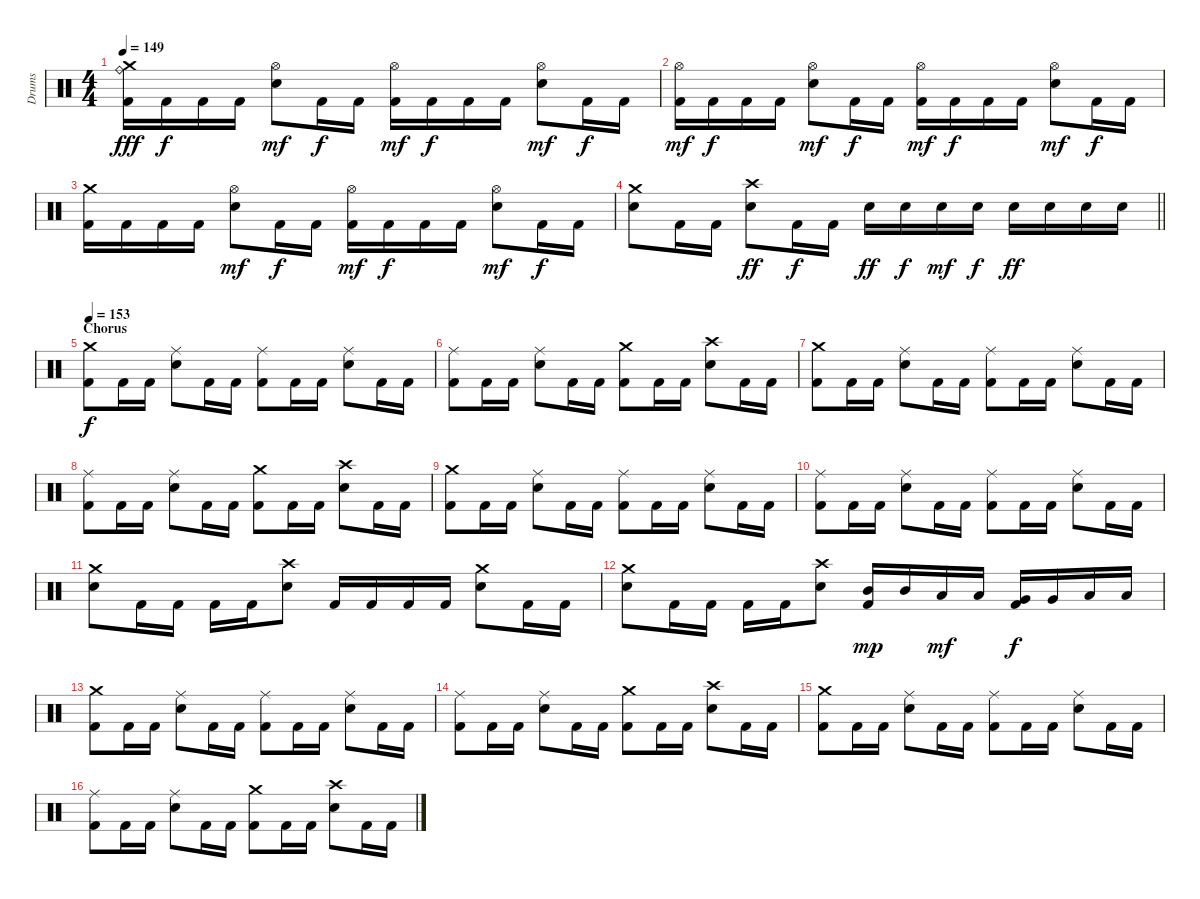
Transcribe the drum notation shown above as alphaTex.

\track ("Drums" "Drums") {instrument percussion}
\staff
\articulation defaults
\ts (4 4)
\tempo 149
\clef neutral
\ks c
("Kick (hit) 2" "Ride (bell)" "Crash medium (hit)").16{dy fff} "Kick (hit) 2".16{dy f} "Kick (hit) 2".16 "Kick (hit) 2".16 ("Electric Snare (hit)" "Hi-Hat (open)").8{dy mf} "Kick (hit) 2".16{dy f} "Kick (hit) 2".16 ("Kick (hit) 2" "Hi-Hat (open)").16{dy mf} "Kick (hit) 2".16{dy f} "Kick (hit) 2".16 "Kick (hit) 2".16 ("Electric Snare (hit)" "Hi-Hat (open)").8{dy mf} "Kick (hit) 2".16{dy f} "Kick (hit) 2".16 |
("Kick (hit) 2" "Hi-Hat (open)").16{dy mf} "Kick (hit) 2".16{dy f} "Kick (hit) 2".16 "Kick (hit) 2".16 ("Electric Snare (hit)" "Hi-Hat (open)").8{dy mf} "Kick (hit) 2".16{dy f} "Kick (hit) 2".16 ("Kick (hit) 2" "Hi-Hat (open)").16{dy mf} "Kick (hit) 2".16{dy f} "Kick (hit) 2".16 "Kick (hit) 2".16 ("Electric Snare (hit)" "Hi-Hat (open)").8{dy mf} "Kick (hit) 2".16{dy f} "Kick (hit) 2".16 |
("Kick (hit) 2" "Crash medium (hit)").16 "Kick (hit) 2".16 "Kick (hit) 2".16 "Kick (hit) 2".16 ("Electric Snare (hit)" "Hi-Hat (open)").8{dy mf} "Kick (hit) 2".16{dy f} "Kick (hit) 2".16 ("Kick (hit) 2" "Hi-Hat (open)").16{dy mf} "Kick (hit) 2".16{dy f} "Kick (hit) 2".16 "Kick (hit) 2".16 ("Electric Snare (hit)" "Hi-Hat (open)").8{dy mf} "Kick (hit) 2".16{dy f} "Kick (hit) 2".16 |
\barLineRight lightlight
("Electric Snare (hit)" "Crash medium (hit)").8 "Kick (hit) 2".16 "Kick (hit) 2".16 ("Electric Snare (hit)" "Crash high (hit)").8{dy ff} "Kick (hit) 2".16{dy f} "Kick (hit) 2".16 "Electric Snare (hit)".16{dy ff} "Electric Snare (hit)".16{dy f} "Electric Snare (hit)".16{dy mf} "Electric Snare (hit)".16{dy f} "Electric Snare (hit)".16{dy ff} "Electric Snare (hit)".16 "Electric Snare (hit)".16 "Electric Snare (hit)".16 |
\section ("" "Chorus")
\tempo 153
("Kick (hit) 2" "Crash medium (hit)").8{dy f} "Kick (hit) 2".16 "Kick (hit) 2".16 ("Electric Snare (hit)" "Ride (middle)").8 "Kick (hit) 2".16 "Kick (hit) 2".16 ("Kick (hit) 2" "Ride (middle)").8 "Kick (hit) 2".16 "Kick (hit) 2".16 ("Electric Snare (hit)" "Ride (middle)").8 "Kick (hit) 2".16 "Kick (hit) 2".16 |
("Kick (hit) 2" "Ride (middle)").8 "Kick (hit) 2".16 "Kick (hit) 2".16 ("Electric Snare (hit)" "Ride (middle)").8 "Kick (hit) 2".16 "Kick (hit) 2".16 ("Kick (hit) 2" "Crash medium (hit)").8 "Kick (hit) 2".16 "Kick (hit) 2".16 ("Electric Snare (hit)" "Crash high (hit)").8 "Kick (hit) 2".16 "Kick (hit) 2".16 |
("Kick (hit) 2" "Crash medium (hit)").8 "Kick (hit) 2".16 "Kick (hit) 2".16 ("Electric Snare (hit)" "Ride (middle)").8 "Kick (hit) 2".16 "Kick (hit) 2".16 ("Kick (hit) 2" "Ride (middle)").8 "Kick (hit) 2".16 "Kick (hit) 2".16 ("Electric Snare (hit)" "Ride (middle)").8 "Kick (hit) 2".16 "Kick (hit) 2".16 |
("Kick (hit) 2" "Ride (middle)").8 "Kick (hit) 2".16 "Kick (hit) 2".16 ("Electric Snare (hit)" "Ride (middle)").8 "Kick (hit) 2".16 "Kick (hit) 2".16 ("Kick (hit) 2" "Crash medium (hit)").8 "Kick (hit) 2".16 "Kick (hit) 2".16 ("Electric Snare (hit)" "Crash high (hit)").8 "Kick (hit) 2".16 "Kick (hit) 2".16 |
("Kick (hit) 2" "Crash medium (hit)").8 "Kick (hit) 2".16 "Kick (hit) 2".16 ("Electric Snare (hit)" "Ride (middle)").8 "Kick (hit) 2".16 "Kick (hit) 2".16 ("Kick (hit) 2" "Ride (middle)").8 "Kick (hit) 2".16 "Kick (hit) 2".16 ("Electric Snare (hit)" "Ride (middle)").8 "Kick (hit) 2".16 "Kick (hit) 2".16 |
("Kick (hit) 2" "Ride (middle)").8 "Kick (hit) 2".16 "Kick (hit) 2".16 ("Electric Snare (hit)" "Ride (middle)").8 "Kick (hit) 2".16 "Kick (hit) 2".16 ("Kick (hit) 2" "Ride (middle)").8 "Kick (hit) 2".16 "Kick (hit) 2".16 ("Electric Snare (hit)" "Ride (middle)").8 "Kick (hit) 2".16 "Kick (hit) 2".16 |
("Electric Snare (hit)" "Crash medium (hit)").8 "Kick (hit) 2".16 "Kick (hit) 2".16 "Kick (hit) 2".16 "Kick (hit) 2".16 ("Electric Snare (hit)" "Crash high (hit)").8 "Kick (hit) 2".16 "Kick (hit) 2".16 "Kick (hit) 2".16 "Kick (hit) 2".16 ("Electric Snare (hit)" "Crash medium (hit)").8 "Kick (hit) 2".16 "Kick (hit) 2".16 |
("Electric Snare (hit)" "Crash medium (hit)").8 "Kick (hit) 2".16 "Kick (hit) 2".16 "Kick (hit) 2".16 "Kick (hit) 2".16 ("Electric Snare (hit)" "Crash high (hit)").8 ("Kick (hit) 2" "Mid Tom (hit)").16{dy mp} "Mid Tom (hit)".16 "Low Tom (hit)".16{dy mf} "Low Tom (hit)".16 ("Kick (hit) 2" "Very Low Tom (hit)").16{dy f} "Very Low Tom (hit)".16 "Low Floor Tom (hit)".16 "Low Floor Tom (hit)".16 |
("Kick (hit) 2" "Crash medium (hit)").8 "Kick (hit) 2".16 "Kick (hit) 2".16 ("Electric Snare (hit)" "Ride (middle)").8 "Kick (hit) 2".16 "Kick (hit) 2".16 ("Kick (hit) 2" "Ride (middle)").8 "Kick (hit) 2".16 "Kick (hit) 2".16 ("Electric Snare (hit)" "Ride (middle)").8 "Kick (hit) 2".16 "Kick (hit) 2".16 |
("Kick (hit) 2" "Ride (middle)").8 "Kick (hit) 2".16 "Kick (hit) 2".16 ("Electric Snare (hit)" "Ride (middle)").8 "Kick (hit) 2".16 "Kick (hit) 2".16 ("Kick (hit) 2" "Crash medium (hit)").8 "Kick (hit) 2".16 "Kick (hit) 2".16 ("Electric Snare (hit)" "Crash high (hit)").8 "Kick (hit) 2".16 "Kick (hit) 2".16 |
("Kick (hit) 2" "Crash medium (hit)").8 "Kick (hit) 2".16 "Kick (hit) 2".16 ("Electric Snare (hit)" "Ride (middle)").8 "Kick (hit) 2".16 "Kick (hit) 2".16 ("Kick (hit) 2" "Ride (middle)").8 "Kick (hit) 2".16 "Kick (hit) 2".16 ("Electric Snare (hit)" "Ride (middle)").8 "Kick (hit) 2".16 "Kick (hit) 2".16 |
("Kick (hit) 2" "Ride (middle)").8 "Kick (hit) 2".16 "Kick (hit) 2".16 ("Electric Snare (hit)" "Ride (middle)").8 "Kick (hit) 2".16 "Kick (hit) 2".16 ("Kick (hit) 2" "Crash medium (hit)").8 "Kick (hit) 2".16 "Kick (hit) 2".16 ("Electric Snare (hit)" "Crash high (hit)").8 "Kick (hit) 2".16 "Kick (hit) 2".16
